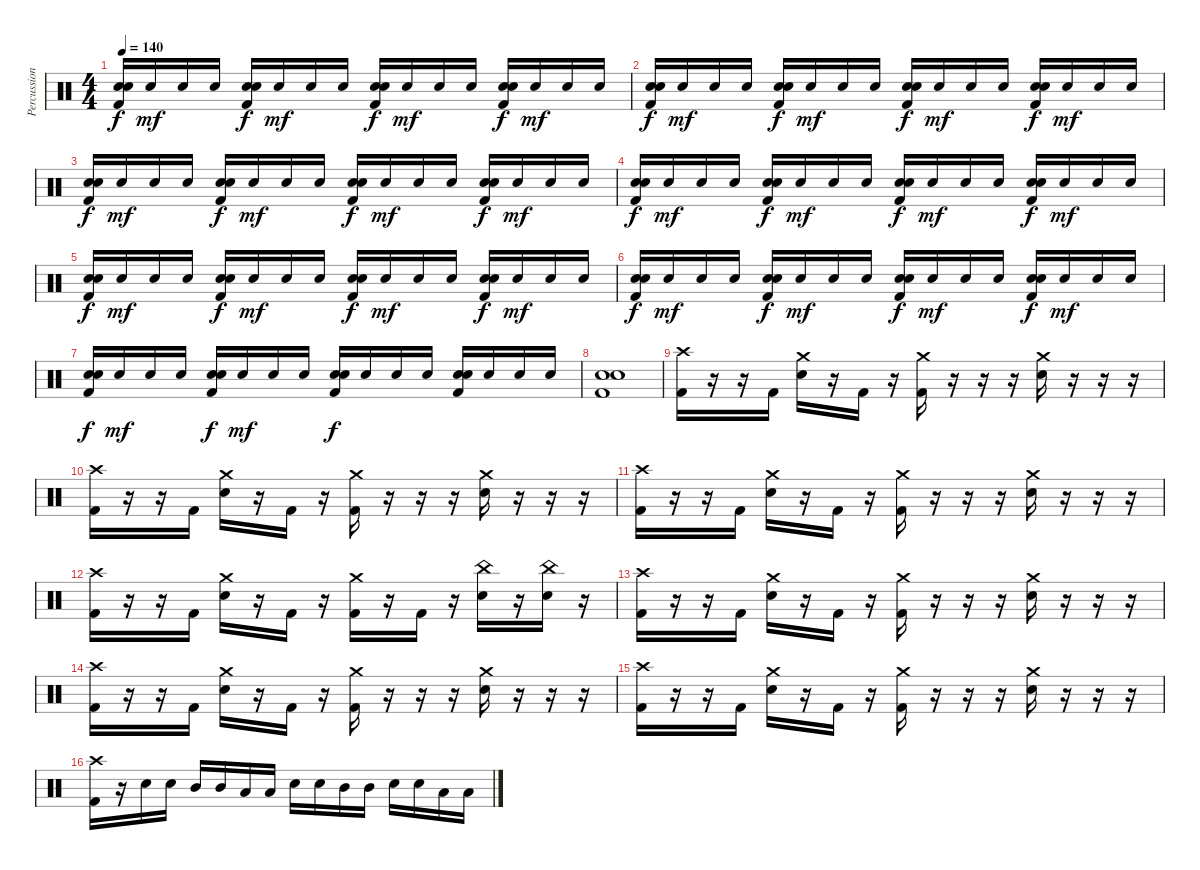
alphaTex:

\track ("Percussions" "Percussion") {instrument percussion}
\staff {score}
\articulation defaults
\ts (4 4)
\tempo 140
\clef neutral
\ks c
("Kick (hit) 2" "Electric Snare (hit)" "Hand Clap (hit)").16{dy f} "Electric Snare (hit)".16{dy mf} "Electric Snare (hit)".16 "Electric Snare (hit)".16 ("Kick (hit) 2" "Electric Snare (hit)" "Hand Clap (hit)").16{dy f} "Electric Snare (hit)".16{dy mf} "Electric Snare (hit)".16 "Electric Snare (hit)".16 ("Kick (hit) 2" "Electric Snare (hit)" "Hand Clap (hit)").16{dy f} "Electric Snare (hit)".16{dy mf} "Electric Snare (hit)".16 "Electric Snare (hit)".16 ("Kick (hit) 2" "Electric Snare (hit)" "Hand Clap (hit)").16{dy f} "Electric Snare (hit)".16{dy mf} "Electric Snare (hit)".16 "Electric Snare (hit)".16 |
("Kick (hit) 2" "Electric Snare (hit)" "Hand Clap (hit)").16{dy f} "Electric Snare (hit)".16{dy mf} "Electric Snare (hit)".16 "Electric Snare (hit)".16 ("Kick (hit) 2" "Electric Snare (hit)" "Hand Clap (hit)").16{dy f} "Electric Snare (hit)".16{dy mf} "Electric Snare (hit)".16 "Electric Snare (hit)".16 ("Kick (hit) 2" "Electric Snare (hit)" "Hand Clap (hit)").16{dy f} "Electric Snare (hit)".16{dy mf} "Electric Snare (hit)".16 "Electric Snare (hit)".16 ("Kick (hit) 2" "Electric Snare (hit)" "Hand Clap (hit)").16{dy f} "Electric Snare (hit)".16{dy mf} "Electric Snare (hit)".16 "Electric Snare (hit)".16 |
("Kick (hit) 2" "Electric Snare (hit)" "Hand Clap (hit)").16{dy f} "Electric Snare (hit)".16{dy mf} "Electric Snare (hit)".16 "Electric Snare (hit)".16 ("Kick (hit) 2" "Electric Snare (hit)" "Hand Clap (hit)").16{dy f} "Electric Snare (hit)".16{dy mf} "Electric Snare (hit)".16 "Electric Snare (hit)".16 ("Kick (hit) 2" "Electric Snare (hit)" "Hand Clap (hit)").16{dy f} "Electric Snare (hit)".16{dy mf} "Electric Snare (hit)".16 "Electric Snare (hit)".16 ("Kick (hit) 2" "Electric Snare (hit)" "Hand Clap (hit)").16{dy f} "Electric Snare (hit)".16{dy mf} "Electric Snare (hit)".16 "Electric Snare (hit)".16 |
("Kick (hit) 2" "Electric Snare (hit)" "Hand Clap (hit)").16{dy f} "Electric Snare (hit)".16{dy mf} "Electric Snare (hit)".16 "Electric Snare (hit)".16 ("Kick (hit) 2" "Electric Snare (hit)" "Hand Clap (hit)").16{dy f} "Electric Snare (hit)".16{dy mf} "Electric Snare (hit)".16 "Electric Snare (hit)".16 ("Kick (hit) 2" "Electric Snare (hit)" "Hand Clap (hit)").16{dy f} "Electric Snare (hit)".16{dy mf} "Electric Snare (hit)".16 "Electric Snare (hit)".16 ("Kick (hit) 2" "Electric Snare (hit)" "Hand Clap (hit)").16{dy f} "Electric Snare (hit)".16{dy mf} "Electric Snare (hit)".16 "Electric Snare (hit)".16 |
("Kick (hit) 2" "Electric Snare (hit)" "Hand Clap (hit)").16{dy f} "Electric Snare (hit)".16{dy mf} "Electric Snare (hit)".16 "Electric Snare (hit)".16 ("Kick (hit) 2" "Electric Snare (hit)" "Hand Clap (hit)").16{dy f} "Electric Snare (hit)".16{dy mf} "Electric Snare (hit)".16 "Electric Snare (hit)".16 ("Kick (hit) 2" "Electric Snare (hit)" "Hand Clap (hit)").16{dy f} "Electric Snare (hit)".16{dy mf} "Electric Snare (hit)".16 "Electric Snare (hit)".16 ("Kick (hit) 2" "Electric Snare (hit)" "Hand Clap (hit)").16{dy f} "Electric Snare (hit)".16{dy mf} "Electric Snare (hit)".16 "Electric Snare (hit)".16 |
("Kick (hit) 2" "Electric Snare (hit)" "Hand Clap (hit)").16{dy f} "Electric Snare (hit)".16{dy mf} "Electric Snare (hit)".16 "Electric Snare (hit)".16 ("Kick (hit) 2" "Electric Snare (hit)" "Hand Clap (hit)").16{dy f} "Electric Snare (hit)".16{dy mf} "Electric Snare (hit)".16 "Electric Snare (hit)".16 ("Kick (hit) 2" "Electric Snare (hit)" "Hand Clap (hit)").16{dy f} "Electric Snare (hit)".16{dy mf} "Electric Snare (hit)".16 "Electric Snare (hit)".16 ("Kick (hit) 2" "Electric Snare (hit)" "Hand Clap (hit)").16{dy f} "Electric Snare (hit)".16{dy mf} "Electric Snare (hit)".16 "Electric Snare (hit)".16 |
("Kick (hit) 2" "Electric Snare (hit)" "Hand Clap (hit)").16{dy f} "Electric Snare (hit)".16{dy mf} "Electric Snare (hit)".16 "Electric Snare (hit)".16 ("Kick (hit) 2" "Electric Snare (hit)" "Hand Clap (hit)").16{dy f} "Electric Snare (hit)".16{dy mf} "Electric Snare (hit)".16 "Electric Snare (hit)".16 ("Kick (hit) 2" "Electric Snare (hit)" "Hand Clap (hit)").16{dy f} "Electric Snare (hit)".16 "Electric Snare (hit)".16 "Electric Snare (hit)".16 ("Kick (hit) 2" "Electric Snare (hit)" "Hand Clap (hit)").16 "Electric Snare (hit)".16 "Electric Snare (hit)".16 "Electric Snare (hit)".16 |
("Kick (hit) 2" "Electric Snare (hit)" "Hand Clap (hit)").1 |
("Kick (hit) 2" "Crash high (hit)").16 r.16 r.16 "Kick (hit) 2".16 ("Electric Snare (hit)" "Crash medium (hit)").16 r.16 "Kick (hit) 2".16 r.16 ("Kick (hit) 2" "Crash medium (hit)").16 r.16 r.16 r.16 ("Electric Snare (hit)" "Crash medium (hit)").16 r.16 r.16 r.16 |
("Kick (hit) 2" "Crash high (hit)").16 r.16 r.16 "Kick (hit) 2".16 ("Electric Snare (hit)" "Crash medium (hit)").16 r.16 "Kick (hit) 2".16 r.16 ("Kick (hit) 2" "Crash medium (hit)").16 r.16 r.16 r.16 ("Electric Snare (hit)" "Crash medium (hit)").16 r.16 r.16 r.16 |
("Kick (hit) 2" "Crash high (hit)").16 r.16 r.16 "Kick (hit) 2".16 ("Electric Snare (hit)" "Crash medium (hit)").16 r.16 "Kick (hit) 2".16 r.16 ("Kick (hit) 2" "Crash medium (hit)").16 r.16 r.16 r.16 ("Electric Snare (hit)" "Crash medium (hit)").16 r.16 r.16 r.16 |
("Kick (hit) 2" "Crash high (hit)").16 r.16 r.16 "Kick (hit) 2".16 ("Electric Snare (hit)" "Crash medium (hit)").16 r.16 "Kick (hit) 2".16 r.16 ("Kick (hit) 2" "Crash medium (hit)").16 r.16 "Kick (hit) 2".16 r.16 ("Electric Snare (hit)" "China (hit)").16 r.16 ("Electric Snare (hit)" "China (hit)").16 r.16 |
("Kick (hit) 2" "Crash high (hit)").16 r.16 r.16 "Kick (hit) 2".16 ("Electric Snare (hit)" "Crash medium (hit)").16 r.16 "Kick (hit) 2".16 r.16 ("Kick (hit) 2" "Crash medium (hit)").16 r.16 r.16 r.16 ("Electric Snare (hit)" "Crash medium (hit)").16 r.16 r.16 r.16 |
("Kick (hit) 2" "Crash high (hit)").16 r.16 r.16 "Kick (hit) 2".16 ("Electric Snare (hit)" "Crash medium (hit)").16 r.16 "Kick (hit) 2".16 r.16 ("Kick (hit) 2" "Crash medium (hit)").16 r.16 r.16 r.16 ("Electric Snare (hit)" "Crash medium (hit)").16 r.16 r.16 r.16 |
("Kick (hit) 2" "Crash high (hit)").16 r.16 r.16 "Kick (hit) 2".16 ("Electric Snare (hit)" "Crash medium (hit)").16 r.16 "Kick (hit) 2".16 r.16 ("Kick (hit) 2" "Crash medium (hit)").16 r.16 r.16 r.16 ("Electric Snare (hit)" "Crash medium (hit)").16 r.16 r.16 r.16 |
("Kick (hit) 2" "Crash high (hit)").16 r.16 "Electric Snare (hit)".16 "Electric Snare (hit)".16 "Mid Tom (hit)".16 "Mid Tom (hit)".16 "Low Tom (hit)".16 "Low Tom (hit)".16 "Electric Snare (hit)".16 "Electric Snare (hit)".16 "Mid Tom (hit)".16 "Mid Tom (hit)".16 "Electric Snare (hit)".16 "Electric Snare (hit)".16 "Low Tom (hit)".16 "Low Tom (hit)".16
